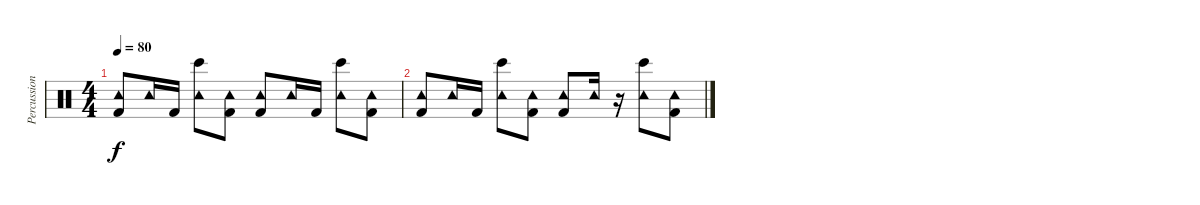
\track ("Percussion" "Percussion") {instrument percussion}
\staff {score}
\articulation defaults
\ts (4 4)
\tempo 80
\clef neutral
\ks c
("Kick (hit) 2" "Tambourine (hit)").8{dy f} "Tambourine (hit)".16 "Kick (hit) 2".16 ("Bongo High (hit)" "Tambourine (hit)").8 ("Kick (hit) 2" "Tambourine (hit)").8 ("Kick (hit) 2" "Tambourine (hit)").8 "Tambourine (hit)".16 "Kick (hit) 2".16 ("Bongo High (hit)" "Tambourine (hit)").8 ("Kick (hit) 2" "Tambourine (hit)").8 |
("Kick (hit) 2" "Tambourine (hit)").8 "Tambourine (hit)".16 "Kick (hit) 2".16 ("Bongo High (hit)" "Tambourine (hit)").8 ("Kick (hit) 2" "Tambourine (hit)").8 ("Kick (hit) 2" "Tambourine (hit)").8 "Tambourine (hit)".16 r.16 ("Bongo High (hit)" "Tambourine (hit)").8 ("Kick (hit) 2" "Tambourine (hit)").8
